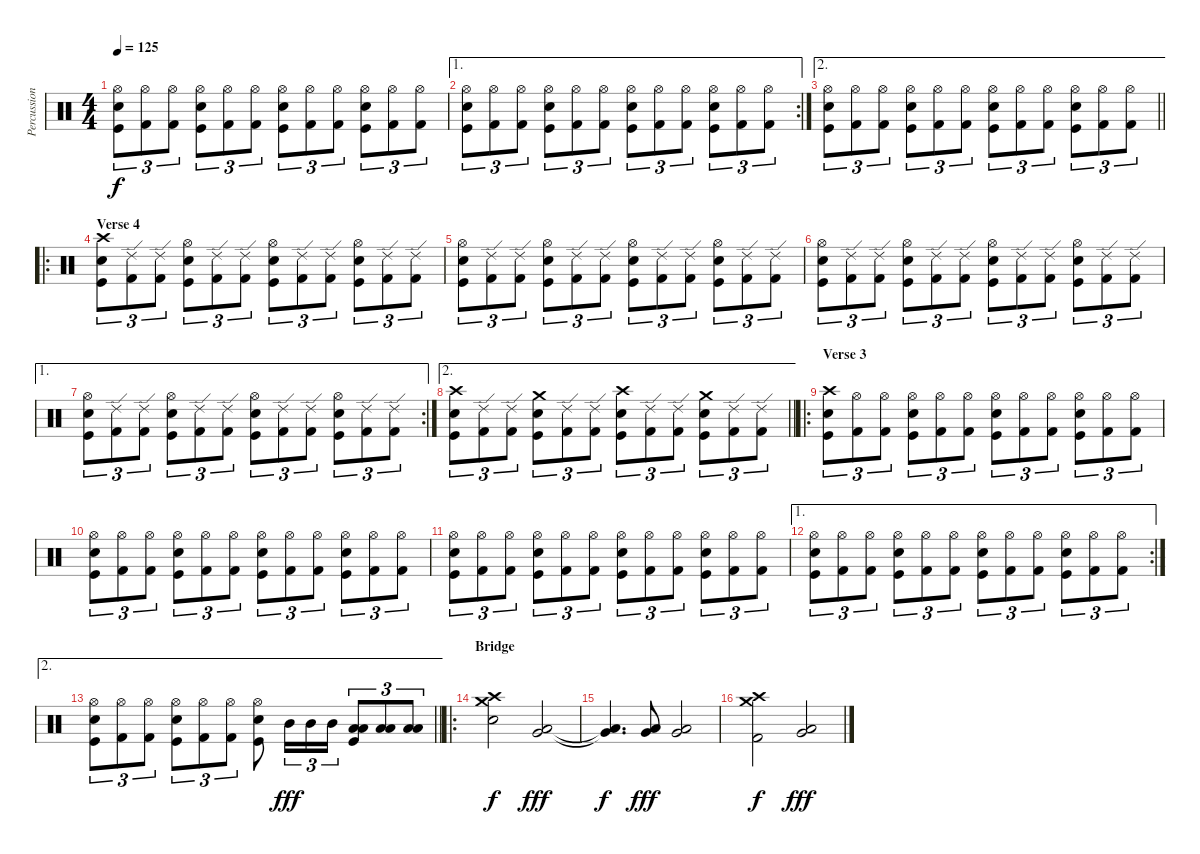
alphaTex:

\track ("Percussion" "Percussion") {instrument percussion}
\staff {score}
\articulation defaults
\ts (4 4)
\tempo 125
\clef neutral
\ks c
("Snare (hit) 2" "Kick (hit)" "Hi-Hat (open)").8{tu (3 2) dy f} ("Kick (hit) 2" "Hi-Hat (open)").8{tu (3 2)} ("Kick (hit) 2" "Hi-Hat (open)").8{tu (3 2)} ("Snare (hit) 2" "Kick (hit)" "Hi-Hat (open)").8{tu (3 2)} ("Kick (hit) 2" "Hi-Hat (open)").8{tu (3 2)} ("Kick (hit) 2" "Hi-Hat (open)").8{tu (3 2)} ("Snare (hit) 2" "Kick (hit)" "Hi-Hat (open)").8{tu (3 2)} ("Kick (hit) 2" "Hi-Hat (open)").8{tu (3 2)} ("Kick (hit) 2" "Hi-Hat (open)").8{tu (3 2)} ("Snare (hit) 2" "Kick (hit)" "Hi-Hat (open)").8{tu (3 2)} ("Kick (hit) 2" "Hi-Hat (open)").8{tu (3 2)} ("Kick (hit) 2" "Hi-Hat (open)").8{tu (3 2)} |
\ae 1
\rc 2
("Snare (hit) 2" "Kick (hit)" "Hi-Hat (open)").8{tu (3 2)} ("Kick (hit) 2" "Hi-Hat (open)").8{tu (3 2)} ("Kick (hit) 2" "Hi-Hat (open)").8{tu (3 2)} ("Snare (hit) 2" "Kick (hit)" "Hi-Hat (open)").8{tu (3 2)} ("Kick (hit) 2" "Hi-Hat (open)").8{tu (3 2)} ("Kick (hit) 2" "Hi-Hat (open)").8{tu (3 2)} ("Snare (hit) 2" "Kick (hit)" "Hi-Hat (open)").8{tu (3 2)} ("Kick (hit) 2" "Hi-Hat (open)").8{tu (3 2)} ("Kick (hit) 2" "Hi-Hat (open)").8{tu (3 2)} ("Snare (hit) 2" "Kick (hit)" "Hi-Hat (open)").8{tu (3 2)} ("Kick (hit) 2" "Hi-Hat (open)").8{tu (3 2)} ("Kick (hit) 2" "Hi-Hat (open)").8{tu (3 2)} |
\ae 2
\barLineRight lightlight
("Snare (hit) 2" "Kick (hit)" "Hi-Hat (open)").8{tu (3 2)} ("Kick (hit) 2" "Hi-Hat (open)").8{tu (3 2)} ("Kick (hit) 2" "Hi-Hat (open)").8{tu (3 2)} ("Snare (hit) 2" "Kick (hit)" "Hi-Hat (open)").8{tu (3 2)} ("Kick (hit) 2" "Hi-Hat (open)").8{tu (3 2)} ("Kick (hit) 2" "Hi-Hat (open)").8{tu (3 2)} ("Snare (hit) 2" "Kick (hit)" "Hi-Hat (open)").8{tu (3 2)} ("Kick (hit) 2" "Hi-Hat (open)").8{tu (3 2)} ("Kick (hit) 2" "Hi-Hat (open)").8{tu (3 2)} ("Snare (hit) 2" "Kick (hit)" "Hi-Hat (open)").8{tu (3 2)} ("Kick (hit) 2" "Hi-Hat (open)").8{tu (3 2)} ("Kick (hit) 2" "Hi-Hat (open)").8{tu (3 2)} |
\ro
\section ("" "Verse 4")
("Snare (hit) 2" "Kick (hit)" "Crash high (hit)").8{tu (3 2)} ("Kick (hit) 2" "Ride (edge) 2").8{tu (3 2)} ("Kick (hit) 2" "Ride (edge) 2").8{tu (3 2)} ("Snare (hit) 2" "Kick (hit)" "Hi-Hat (open)").8{tu (3 2)} ("Kick (hit) 2" "Ride (edge) 2").8{tu (3 2)} ("Kick (hit) 2" "Ride (edge) 2").8{tu (3 2)} ("Snare (hit) 2" "Kick (hit)" "Hi-Hat (open)").8{tu (3 2)} ("Kick (hit) 2" "Ride (edge) 2").8{tu (3 2)} ("Kick (hit) 2" "Ride (edge) 2").8{tu (3 2)} ("Snare (hit) 2" "Kick (hit)" "Hi-Hat (open)").8{tu (3 2)} ("Kick (hit) 2" "Ride (edge) 2").8{tu (3 2)} ("Kick (hit) 2" "Ride (edge) 2").8{tu (3 2)} |
("Snare (hit) 2" "Kick (hit)" "Hi-Hat (open)").8{tu (3 2)} ("Kick (hit) 2" "Ride (edge) 2").8{tu (3 2)} ("Kick (hit) 2" "Ride (edge) 2").8{tu (3 2)} ("Snare (hit) 2" "Kick (hit)" "Hi-Hat (open)").8{tu (3 2)} ("Kick (hit) 2" "Ride (edge) 2").8{tu (3 2)} ("Kick (hit) 2" "Ride (edge) 2").8{tu (3 2)} ("Snare (hit) 2" "Kick (hit)" "Hi-Hat (open)").8{tu (3 2)} ("Kick (hit) 2" "Ride (edge) 2").8{tu (3 2)} ("Kick (hit) 2" "Ride (edge) 2").8{tu (3 2)} ("Snare (hit) 2" "Kick (hit)" "Hi-Hat (open)").8{tu (3 2)} ("Kick (hit) 2" "Ride (edge) 2").8{tu (3 2)} ("Kick (hit) 2" "Ride (edge) 2").8{tu (3 2)} |
("Snare (hit) 2" "Kick (hit)" "Hi-Hat (open)").8{tu (3 2)} ("Kick (hit) 2" "Ride (edge) 2").8{tu (3 2)} ("Kick (hit) 2" "Ride (edge) 2").8{tu (3 2)} ("Snare (hit) 2" "Kick (hit)" "Hi-Hat (open)").8{tu (3 2)} ("Kick (hit) 2" "Ride (edge) 2").8{tu (3 2)} ("Kick (hit) 2" "Ride (edge) 2").8{tu (3 2)} ("Snare (hit) 2" "Kick (hit)" "Hi-Hat (open)").8{tu (3 2)} ("Kick (hit) 2" "Ride (edge) 2").8{tu (3 2)} ("Kick (hit) 2" "Ride (edge) 2").8{tu (3 2)} ("Snare (hit) 2" "Kick (hit)" "Hi-Hat (open)").8{tu (3 2)} ("Kick (hit) 2" "Ride (edge) 2").8{tu (3 2)} ("Kick (hit) 2" "Ride (edge) 2").8{tu (3 2)} |
\ae 1
\rc 2
("Snare (hit) 2" "Kick (hit)" "Hi-Hat (open)").8{tu (3 2)} ("Kick (hit) 2" "Ride (edge) 2").8{tu (3 2)} ("Kick (hit) 2" "Ride (edge) 2").8{tu (3 2)} ("Snare (hit) 2" "Kick (hit)" "Hi-Hat (open)").8{tu (3 2)} ("Kick (hit) 2" "Ride (edge) 2").8{tu (3 2)} ("Kick (hit) 2" "Ride (edge) 2").8{tu (3 2)} ("Snare (hit) 2" "Kick (hit)" "Hi-Hat (open)").8{tu (3 2)} ("Kick (hit) 2" "Ride (edge) 2").8{tu (3 2)} ("Kick (hit) 2" "Ride (edge) 2").8{tu (3 2)} ("Snare (hit) 2" "Kick (hit)" "Hi-Hat (open)").8{tu (3 2)} ("Kick (hit) 2" "Ride (edge) 2").8{tu (3 2)} ("Kick (hit) 2" "Ride (edge) 2").8{tu (3 2)} |
\ae 2
\barLineRight lightlight
("Snare (hit) 2" "Kick (hit)" "Crash high (hit)").8{tu (3 2)} ("Kick (hit) 2" "Ride (edge) 2").8{tu (3 2)} ("Kick (hit) 2" "Ride (edge) 2").8{tu (3 2)} ("Snare (hit) 2" "Kick (hit)" "Crash medium (hit)").8{tu (3 2)} ("Kick (hit) 2" "Ride (edge) 2").8{tu (3 2)} ("Kick (hit) 2" "Ride (edge) 2").8{tu (3 2)} ("Snare (hit) 2" "Kick (hit)" "Crash high (hit)").8{tu (3 2)} ("Kick (hit) 2" "Ride (edge) 2").8{tu (3 2)} ("Kick (hit) 2" "Ride (edge) 2").8{tu (3 2)} ("Snare (hit) 2" "Kick (hit)" "Crash medium (hit)").8{tu (3 2)} ("Kick (hit) 2" "Ride (edge) 2").8{tu (3 2)} ("Kick (hit) 2" "Ride (edge) 2").8{tu (3 2)} |
\ro
\section ("" "Verse 3")
("Snare (hit) 2" "Kick (hit)" "Crash high (hit)").8{tu (3 2)} ("Kick (hit) 2" "Hi-Hat (open)").8{tu (3 2)} ("Kick (hit) 2" "Hi-Hat (open)").8{tu (3 2)} ("Snare (hit) 2" "Kick (hit)" "Hi-Hat (open)").8{tu (3 2)} ("Kick (hit) 2" "Hi-Hat (open)").8{tu (3 2)} ("Kick (hit) 2" "Hi-Hat (open)").8{tu (3 2)} ("Snare (hit) 2" "Kick (hit)" "Hi-Hat (open)").8{tu (3 2)} ("Kick (hit) 2" "Hi-Hat (open)").8{tu (3 2)} ("Kick (hit) 2" "Hi-Hat (open)").8{tu (3 2)} ("Snare (hit) 2" "Kick (hit)" "Hi-Hat (open)").8{tu (3 2)} ("Kick (hit) 2" "Hi-Hat (open)").8{tu (3 2)} ("Kick (hit) 2" "Hi-Hat (open)").8{tu (3 2)} |
("Snare (hit) 2" "Kick (hit)" "Hi-Hat (open)").8{tu (3 2)} ("Kick (hit) 2" "Hi-Hat (open)").8{tu (3 2)} ("Kick (hit) 2" "Hi-Hat (open)").8{tu (3 2)} ("Snare (hit) 2" "Kick (hit)" "Hi-Hat (open)").8{tu (3 2)} ("Kick (hit) 2" "Hi-Hat (open)").8{tu (3 2)} ("Kick (hit) 2" "Hi-Hat (open)").8{tu (3 2)} ("Snare (hit) 2" "Kick (hit)" "Hi-Hat (open)").8{tu (3 2)} ("Kick (hit) 2" "Hi-Hat (open)").8{tu (3 2)} ("Kick (hit) 2" "Hi-Hat (open)").8{tu (3 2)} ("Snare (hit) 2" "Kick (hit)" "Hi-Hat (open)").8{tu (3 2)} ("Kick (hit) 2" "Hi-Hat (open)").8{tu (3 2)} ("Kick (hit) 2" "Hi-Hat (open)").8{tu (3 2)} |
("Snare (hit) 2" "Kick (hit)" "Hi-Hat (open)").8{tu (3 2)} ("Kick (hit) 2" "Hi-Hat (open)").8{tu (3 2)} ("Kick (hit) 2" "Hi-Hat (open)").8{tu (3 2)} ("Snare (hit) 2" "Kick (hit)" "Hi-Hat (open)").8{tu (3 2)} ("Kick (hit) 2" "Hi-Hat (open)").8{tu (3 2)} ("Kick (hit) 2" "Hi-Hat (open)").8{tu (3 2)} ("Snare (hit) 2" "Kick (hit)" "Hi-Hat (open)").8{tu (3 2)} ("Kick (hit) 2" "Hi-Hat (open)").8{tu (3 2)} ("Kick (hit) 2" "Hi-Hat (open)").8{tu (3 2)} ("Snare (hit) 2" "Kick (hit)" "Hi-Hat (open)").8{tu (3 2)} ("Kick (hit) 2" "Hi-Hat (open)").8{tu (3 2)} ("Kick (hit) 2" "Hi-Hat (open)").8{tu (3 2)} |
\ae 1
\rc 2
("Snare (hit) 2" "Kick (hit)" "Hi-Hat (open)").8{tu (3 2)} ("Kick (hit) 2" "Hi-Hat (open)").8{tu (3 2)} ("Kick (hit) 2" "Hi-Hat (open)").8{tu (3 2)} ("Snare (hit) 2" "Kick (hit)" "Hi-Hat (open)").8{tu (3 2)} ("Kick (hit) 2" "Hi-Hat (open)").8{tu (3 2)} ("Kick (hit) 2" "Hi-Hat (open)").8{tu (3 2)} ("Snare (hit) 2" "Kick (hit)" "Hi-Hat (open)").8{tu (3 2)} ("Kick (hit) 2" "Hi-Hat (open)").8{tu (3 2)} ("Kick (hit) 2" "Hi-Hat (open)").8{tu (3 2)} ("Snare (hit) 2" "Kick (hit)" "Hi-Hat (open)").8{tu (3 2)} ("Kick (hit) 2" "Hi-Hat (open)").8{tu (3 2)} ("Kick (hit) 2" "Hi-Hat (open)").8{tu (3 2)} |
\ae 2
\barLineRight lightlight
("Snare (hit) 2" "Kick (hit)" "Hi-Hat (open)").8{tu (3 2)} ("Kick (hit) 2" "Hi-Hat (open)").8{tu (3 2)} ("Kick (hit) 2" "Hi-Hat (open)").8{tu (3 2)} ("Snare (hit) 2" "Kick (hit)" "Hi-Hat (open)").8{tu (3 2)} ("Kick (hit) 2" "Hi-Hat (open)").8{tu (3 2)} ("Kick (hit) 2" "Hi-Hat (open)").8{tu (3 2)} ("Snare (hit) 2" "Kick (hit)" "Hi-Hat (open)").8 "Mid Tom (hit)".16{tu (3 2) dy fff} "Mid Tom (hit)".16{tu (3 2)} "Mid Tom (hit)".16{tu (3 2)} ("Low Tom (hit)" "Low Tom (hit)" "Kick (hit)").8{tu (3 2)} ("Low Tom (hit)" "Low Tom (hit)").8{tu (3 2)} ("Low Tom (hit)" "Low Tom (hit)").8{tu (3 2)} |
\ro
\section ("" "Bridge")
("Snare (hit) 2" "Crash high (hit)" "Crash medium (hit)").2{dy f} ("Low Tom (hit)" "Very Low Tom (hit)").2{dy fff} |
("Low Tom (hit)"{t} "Very Low Tom (hit)"{t}).4{d dy f} ("Low Tom (hit)" "Very Low Tom (hit)").8{dy fff} ("Low Tom (hit)" "Very Low Tom (hit)").2 |
("Kick (hit) 2" "Crash medium (hit)" "Crash high (hit)").2{dy f} ("Very Low Tom (hit)" "Low Tom (hit)").2{dy fff}
